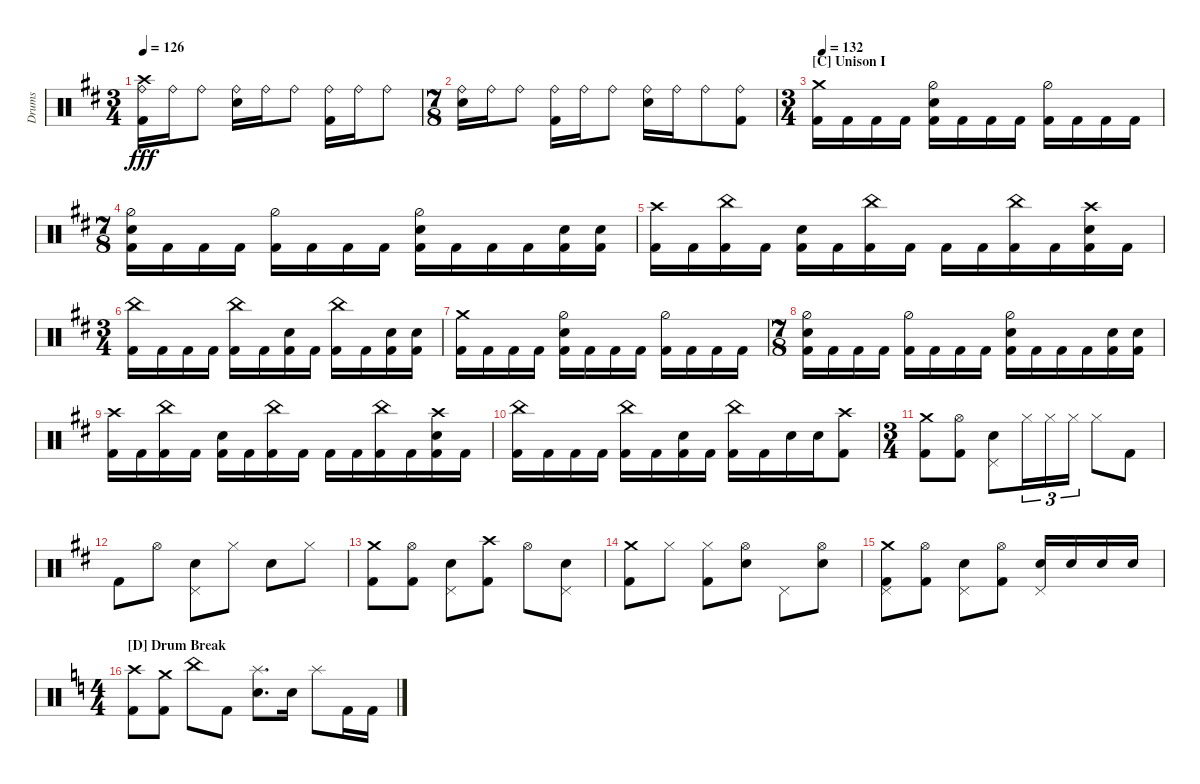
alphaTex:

\defaultSystemsLayout 4
\bracketExtendMode groupsimilarinstruments
\otherSystemsTrackNameOrientation horizontal
\track ("Drumkit" "Drums") {multiBarRest instrument percussion}
\staff {score}
\articulation defaults
\ts (3 4)
\beaming (8 2 2 3)
\tempo 126
\clef neutral
\ks d
("Kick (hit) 2"{acc forcenatural} "Ride (bell)"{acc forcenatural} "Crash high (hit)"{acc forcenatural}).16{dy fff} "Ride (bell)"{acc forcenatural}.16 "Ride (bell)"{acc forcenatural}.8 ("Ride (bell)"{acc forcenatural} "Snare (hit) 2"{acc forcenatural}).16 "Ride (bell)"{acc forcenatural}.16 "Ride (bell)"{acc forcenatural}.8 ("Kick (hit) 2"{acc forcenatural} "Ride (bell)"{acc forcenatural}).16 "Ride (bell)"{acc forcenatural}.16 "Ride (bell)"{acc forcenatural}.8 |
\ts (7 8)
\beaming (8 2 2 3)
("Ride (bell)"{acc forcenatural} "Snare (hit) 2"{acc forcenatural}).16 "Ride (bell)"{acc forcenatural}.16 "Ride (bell)"{acc forcenatural}.8 ("Kick (hit) 2"{acc forcenatural} "Ride (bell)"{acc forcenatural}).16 "Ride (bell)"{acc forcenatural}.16 "Ride (bell)"{acc forcenatural}.8 ("Ride (bell)"{acc forcenatural} "Snare (hit) 2"{acc forcenatural}).16 "Ride (bell)"{acc forcenatural}.16 "Ride (bell)"{acc forcenatural}.8 ("Ride (bell)"{acc forcenatural} "Kick (hit) 2"{acc forcenatural}).8 |
\ts (3 4)
\beaming (8 2 2 3)
\section ("C" "Unison I")
\tempo (132 0.0125)
("Kick (hit) 2"{acc forcenatural} "Crash medium (hit)"{acc forcenatural}).16 "Kick (hit) 2"{acc forcenatural}.16 "Kick (hit) 2"{acc forcenatural}.16 "Kick (hit) 2"{acc forcenatural}.16 ("Kick (hit) 2"{acc forcenatural} "Hi-Hat (half)"{acc forcenatural} "Snare (hit) 2"{acc forcenatural}).16 "Kick (hit) 2"{acc forcenatural}.16 "Kick (hit) 2"{acc forcenatural}.16 "Kick (hit) 2"{acc forcenatural}.16 ("Kick (hit) 2"{acc forcenatural} "Hi-Hat (half)"{acc forcenatural}).16 "Kick (hit) 2"{acc forcenatural}.16 "Kick (hit) 2"{acc forcenatural}.16 "Kick (hit) 2"{acc forcenatural}.16 |
\ts (7 8)
\beaming (8 2 2 3)
("Kick (hit) 2"{acc forcenatural} "Hi-Hat (half)"{acc forcenatural} "Snare (hit) 2"{acc forcenatural}).16 "Kick (hit) 2"{acc forcenatural}.16 "Kick (hit) 2"{acc forcenatural}.16 "Kick (hit) 2"{acc forcenatural}.16 ("Kick (hit) 2"{acc forcenatural} "Hi-Hat (half)"{acc forcenatural}).16 "Kick (hit) 2"{acc forcenatural}.16 "Kick (hit) 2"{acc forcenatural}.16 "Kick (hit) 2"{acc forcenatural}.16 ("Kick (hit) 2"{acc forcenatural} "Hi-Hat (half)"{acc forcenatural} "Snare (hit) 2"{acc forcenatural}).16 "Kick (hit) 2"{acc forcenatural}.16 "Kick (hit) 2"{acc forcenatural}.16 "Kick (hit) 2"{acc forcenatural}.16 ("Kick (hit) 2"{acc forcenatural} "Snare (hit) 2"{acc forcenatural}).16 ("Kick (hit) 2"{acc forcenatural} "Snare (hit) 2"{acc forcenatural}).16 |
("Kick (hit) 2"{acc forcenatural} "Crash high (hit)"{acc forcenatural}).16 "Kick (hit) 2"{acc forcenatural}.16 ("Kick (hit) 2"{acc forcenatural} "China (hit)"{acc forcenatural}).16 "Kick (hit) 2"{acc forcenatural}.16 ("Kick (hit) 2"{acc forcenatural} "Snare (hit) 2"{acc forcenatural}).16 "Kick (hit) 2"{acc forcenatural}.16 ("Kick (hit) 2"{acc forcenatural} "China (hit)"{acc forcenatural}).16 "Kick (hit) 2"{acc forcenatural}.16 "Kick (hit) 2"{acc forcenatural}.16 "Kick (hit) 2"{acc forcenatural}.16 ("Kick (hit) 2"{acc forcenatural} "China (hit)"{acc forcenatural}).16 "Kick (hit) 2"{acc forcenatural}.16 ("Kick (hit) 2"{acc forcenatural} "Snare (hit) 2"{acc forcenatural} "Crash high (hit)"{acc forcenatural}).16 "Kick (hit) 2"{acc forcenatural}.16 |
\ts (3 4)
\beaming (8 2 2 3)
("Kick (hit) 2"{acc forcenatural} "China (hit)"{acc forcenatural}).16 "Kick (hit) 2"{acc forcenatural}.16 "Kick (hit) 2"{acc forcenatural}.16 "Kick (hit) 2"{acc forcenatural}.16 ("Kick (hit) 2"{acc forcenatural} "China (hit)"{acc forcenatural}).16 "Kick (hit) 2"{acc forcenatural}.16 ("Kick (hit) 2"{acc forcenatural} "Snare (hit) 2"{acc forcenatural}).16 "Kick (hit) 2"{acc forcenatural}.16 ("Kick (hit) 2"{acc forcenatural} "China (hit)"{acc forcenatural}).16 "Kick (hit) 2"{acc forcenatural}.16 ("Kick (hit) 2"{acc forcenatural} "Snare (hit) 2"{acc forcenatural}).16 ("Kick (hit) 2"{acc forcenatural} "Snare (hit) 2"{acc forcenatural}).16 |
("Kick (hit) 2"{acc forcenatural} "Crash medium (hit)"{acc forcenatural}).16 "Kick (hit) 2"{acc forcenatural}.16 "Kick (hit) 2"{acc forcenatural}.16 "Kick (hit) 2"{acc forcenatural}.16 ("Kick (hit) 2"{acc forcenatural} "Hi-Hat (half)"{acc forcenatural} "Snare (hit) 2"{acc forcenatural}).16 "Kick (hit) 2"{acc forcenatural}.16 "Kick (hit) 2"{acc forcenatural}.16 "Kick (hit) 2"{acc forcenatural}.16 ("Kick (hit) 2"{acc forcenatural} "Hi-Hat (half)"{acc forcenatural}).16 "Kick (hit) 2"{acc forcenatural}.16 "Kick (hit) 2"{acc forcenatural}.16 "Kick (hit) 2"{acc forcenatural}.16 |
\ts (7 8)
\beaming (8 2 2 3)
("Kick (hit) 2"{acc forcenatural} "Hi-Hat (half)"{acc forcenatural} "Snare (hit) 2"{acc forcenatural}).16 "Kick (hit) 2"{acc forcenatural}.16 "Kick (hit) 2"{acc forcenatural}.16 "Kick (hit) 2"{acc forcenatural}.16 ("Kick (hit) 2"{acc forcenatural} "Hi-Hat (half)"{acc forcenatural}).16 "Kick (hit) 2"{acc forcenatural}.16 "Kick (hit) 2"{acc forcenatural}.16 "Kick (hit) 2"{acc forcenatural}.16 ("Kick (hit) 2"{acc forcenatural} "Hi-Hat (half)"{acc forcenatural} "Snare (hit) 2"{acc forcenatural}).16 "Kick (hit) 2"{acc forcenatural}.16 "Kick (hit) 2"{acc forcenatural}.16 "Kick (hit) 2"{acc forcenatural}.16 ("Kick (hit) 2"{acc forcenatural} "Snare (hit) 2"{acc forcenatural}).16 ("Kick (hit) 2"{acc forcenatural} "Snare (hit) 2"{acc forcenatural}).16 |
("Kick (hit) 2"{acc forcenatural} "Crash high (hit)"{acc forcenatural}).16 "Kick (hit) 2"{acc forcenatural}.16 ("Kick (hit) 2"{acc forcenatural} "China (hit)"{acc forcenatural}).16 "Kick (hit) 2"{acc forcenatural}.16 ("Kick (hit) 2"{acc forcenatural} "Snare (hit) 2"{acc forcenatural}).16 "Kick (hit) 2"{acc forcenatural}.16 ("Kick (hit) 2"{acc forcenatural} "China (hit)"{acc forcenatural}).16 "Kick (hit) 2"{acc forcenatural}.16 "Kick (hit) 2"{acc forcenatural}.16 "Kick (hit) 2"{acc forcenatural}.16 ("Kick (hit) 2"{acc forcenatural} "China (hit)"{acc forcenatural}).16 "Kick (hit) 2"{acc forcenatural}.16 ("Kick (hit) 2"{acc forcenatural} "Snare (hit) 2"{acc forcenatural} "Crash high (hit)"{acc forcenatural}).16 "Kick (hit) 2"{acc forcenatural}.16 |
("Kick (hit) 2"{acc forcenatural} "China (hit)"{acc forcenatural}).16 "Kick (hit) 2"{acc forcenatural}.16 "Kick (hit) 2"{acc forcenatural}.16 "Kick (hit) 2"{acc forcenatural}.16 ("Kick (hit) 2"{acc forcenatural} "China (hit)"{acc forcenatural}).16 "Kick (hit) 2"{acc forcenatural}.16 ("Kick (hit) 2"{acc forcenatural} "Snare (hit) 2"{acc forcenatural}).16 "Kick (hit) 2"{acc forcenatural}.16 ("Kick (hit) 2"{acc forcenatural} "China (hit)"{acc forcenatural}).16 "Kick (hit) 2"{acc forcenatural}.16 "Snare (hit) 2"{acc forcenatural}.16 "Snare (hit) 2"{acc forcenatural}.16 ("Kick (hit) 2"{acc forcenatural} "Crash high (hit)"{acc forcenatural}).8 |
\ts (3 4)
\beaming (8 2 2 3)
("Crash medium (hit)"{acc forcenatural} "Kick (hit) 2"{acc forcenatural}).8 ("Hi-Hat (open)"{acc forcenatural} "Kick (hit) 2"{acc forcenatural}).8 ("Pedal Hi-Hat (hit)"{acc forcenatural} "Snare (hit) 2"{acc forcenatural}).8{beam merge} "Hi-Hat (closed)"{acc forcenatural}.16{tu (3 2)} "Hi-Hat (closed)"{acc forcenatural}.16{tu (3 2)} "Hi-Hat (closed)"{acc forcenatural}.16{tu (3 2)} "Hi-Hat (closed)"{acc forcenatural}.8 "Kick (hit) 2"{acc forcenatural}.8 |
"Kick (hit) 2"{acc forcenatural}.8 "Hi-Hat (open)"{acc forcenatural}.8 ("Pedal Hi-Hat (hit)"{acc forcenatural} "Snare (hit) 2"{acc forcenatural}).8 "Hi-Hat (closed)"{acc forcenatural}.8 "Snare (hit) 2"{acc forcenatural}.8 "Hi-Hat (closed)"{acc forcenatural}.8 |
("Crash medium (hit)"{acc forcenatural} "Kick (hit) 2"{acc forcenatural}).8 ("Hi-Hat (open)"{acc forcenatural} "Kick (hit) 2"{acc forcenatural}).8 ("Pedal Hi-Hat (hit)"{acc forcenatural} "Snare (hit) 2"{acc forcenatural}).8 ("Kick (hit) 2"{acc forcenatural} "Crash high (hit)"{acc forcenatural}).8 "Hi-Hat (open)"{acc forcenatural}.8 ("Pedal Hi-Hat (hit)"{acc forcenatural} "Snare (hit) 2"{acc forcenatural}).8 |
("Crash medium (hit)"{acc forcenatural} "Kick (hit) 2"{acc forcenatural}).8 "Hi-Hat (closed)"{acc forcenatural}.8 ("Hi-Hat (closed)"{acc forcenatural} "Kick (hit) 2"{acc forcenatural}).8 ("Hi-Hat (open)"{acc forcenatural} "Snare (hit) 2"{acc forcenatural}).8 "Pedal Hi-Hat (hit)"{acc forcenatural}.8 ("Hi-Hat (open)"{acc forcenatural} "Snare (hit) 2"{acc forcenatural}).8 |
("Crash medium (hit)"{acc forcenatural} "Kick (hit) 2"{acc forcenatural} "Pedal Hi-Hat (hit)"{acc forcenatural}).8 ("Hi-Hat (open)"{acc forcenatural} "Kick (hit) 2"{acc forcenatural}).8 ("Pedal Hi-Hat (hit)"{acc forcenatural} "Snare (hit) 2"{acc forcenatural}).8 ("Hi-Hat (open)"{acc forcenatural} "Kick (hit) 2"{acc forcenatural}).8 ("Pedal Hi-Hat (hit)"{acc forcenatural} "Snare (hit) 2"{acc forcenatural}).16 "Snare (hit) 2"{acc forcenatural}.16 "Snare (hit) 2"{acc forcenatural}.16 "Snare (hit) 2"{acc forcenatural}.16 |
\ts (4 4)
\beaming (8 2 2 3)
\section ("D" "Drum Break")
\ks c
("Kick (hit) 2" "Crash high (hit)").8 ("Kick (hit) 2" "Crash medium (hit)").8 "China (hit)".8 "Kick (hit) 2".8 ("Snare (hit) 2" "Splash (hit)").8{d} "Snare (hit) 2".16{beam split} "Splash (hit)".8{beam merge} "Kick (hit) 2".16{beam merge} "Kick (hit) 2".16
